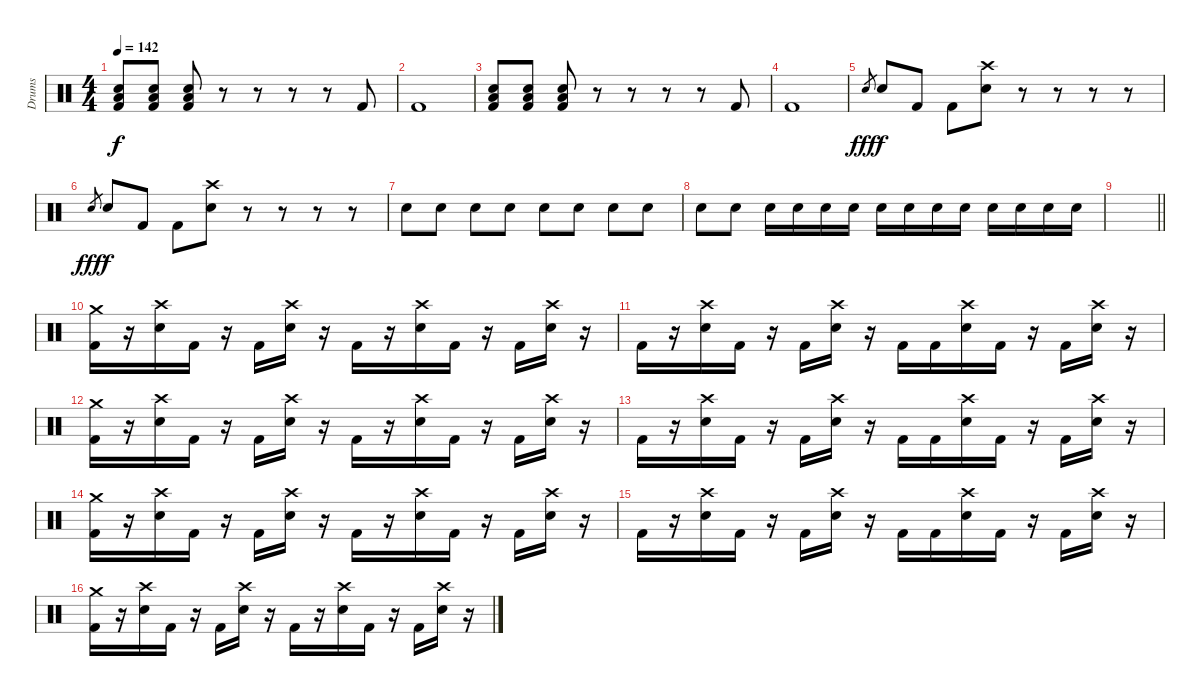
\track ("Drums" "Drums") {instrument percussion}
\staff
\articulation defaults
\ts (4 4)
\section ("" "")
\tempo 142
\clef neutral
\ks c
("Low Floor Tom (hit)" "Snare (hit) 2" "Kick (hit) 2").8{dy f} ("Low Floor Tom (hit)" "Snare (hit) 2" "Kick (hit) 2").8 ("Low Floor Tom (hit)" "Snare (hit) 2" "Kick (hit) 2").8 r.8 r.8 r.8 r.8 "Kick (hit) 2".8 |
"Kick (hit) 2".1 |
("Low Floor Tom (hit)" "Snare (hit) 2" "Kick (hit) 2").8 ("Low Floor Tom (hit)" "Snare (hit) 2" "Kick (hit) 2").8 ("Low Floor Tom (hit)" "Snare (hit) 2" "Kick (hit) 2").8 r.8 r.8 r.8 r.8 "Kick (hit) 2".8 |
"Kick (hit) 2".1 |
"Snare (hit) 2".8{gr dy fff} "Snare (hit) 2".8{dy f} "Kick (hit) 2".8 "Kick (hit) 2".8 ("Crash high (hit)" "Snare (hit) 2").8 r.8 r.8 r.8 r.8 |
"Snare (hit) 2".8{gr dy fff} "Snare (hit) 2".8{dy f} "Kick (hit) 2".8 "Kick (hit) 2".8 ("Crash high (hit)" "Snare (hit) 2").8 r.8 r.8 r.8 r.8 |
"Snare (hit) 2".8{volume 6} "Snare (hit) 2".8{volume 16} "Snare (hit) 2".8 "Snare (hit) 2".8 "Snare (hit) 2".8 "Snare (hit) 2".8 "Snare (hit) 2".8 "Snare (hit) 2".8 |
"Snare (hit) 2".8 "Snare (hit) 2".8 "Snare (hit) 2".16 "Snare (hit) 2".16 "Snare (hit) 2".16 "Snare (hit) 2".16 "Snare (hit) 2".16 "Snare (hit) 2".16 "Snare (hit) 2".16 "Snare (hit) 2".16 "Snare (hit) 2".16 "Snare (hit) 2".16 "Snare (hit) 2".16 "Snare (hit) 2".16 |
\barLineRight lightlight
|
\section ("" "")
("Crash medium (hit)" "Kick (hit) 2").16 r.16 ("Crash high (hit)" "Snare (hit) 2").16 "Kick (hit) 2".16 r.16 "Kick (hit) 2".16 ("Crash high (hit)" "Snare (hit) 2").16 r.16 "Kick (hit) 2".16 r.16 ("Crash high (hit)" "Snare (hit) 2").16 "Kick (hit) 2".16 r.16 "Kick (hit) 2".16 ("Crash high (hit)" "Snare (hit) 2").16 r.16 |
"Kick (hit) 2".16 r.16 ("Crash high (hit)" "Snare (hit) 2").16 "Kick (hit) 2".16 r.16 "Kick (hit) 2".16 ("Crash high (hit)" "Snare (hit) 2").16 r.16 "Kick (hit) 2".16 "Kick (hit) 2".16 ("Crash high (hit)" "Snare (hit) 2").16 "Kick (hit) 2".16 r.16 "Kick (hit) 2".16 ("Crash high (hit)" "Snare (hit) 2").16 r.16 |
("Crash medium (hit)" "Kick (hit) 2").16 r.16 ("Crash high (hit)" "Snare (hit) 2").16 "Kick (hit) 2".16 r.16 "Kick (hit) 2".16 ("Crash high (hit)" "Snare (hit) 2").16 r.16 "Kick (hit) 2".16 r.16 ("Crash high (hit)" "Snare (hit) 2").16 "Kick (hit) 2".16 r.16 "Kick (hit) 2".16 ("Crash high (hit)" "Snare (hit) 2").16 r.16 |
"Kick (hit) 2".16 r.16 ("Crash high (hit)" "Snare (hit) 2").16 "Kick (hit) 2".16 r.16 "Kick (hit) 2".16 ("Crash high (hit)" "Snare (hit) 2").16 r.16 "Kick (hit) 2".16 "Kick (hit) 2".16 ("Crash high (hit)" "Snare (hit) 2").16 "Kick (hit) 2".16 r.16 "Kick (hit) 2".16 ("Crash high (hit)" "Snare (hit) 2").16 r.16 |
("Crash medium (hit)" "Kick (hit) 2").16 r.16 ("Crash high (hit)" "Snare (hit) 2").16 "Kick (hit) 2".16 r.16 "Kick (hit) 2".16 ("Crash high (hit)" "Snare (hit) 2").16 r.16 "Kick (hit) 2".16 r.16 ("Crash high (hit)" "Snare (hit) 2").16 "Kick (hit) 2".16 r.16 "Kick (hit) 2".16 ("Crash high (hit)" "Snare (hit) 2").16 r.16 |
"Kick (hit) 2".16 r.16 ("Crash high (hit)" "Snare (hit) 2").16 "Kick (hit) 2".16 r.16 "Kick (hit) 2".16 ("Crash high (hit)" "Snare (hit) 2").16 r.16 "Kick (hit) 2".16 "Kick (hit) 2".16 ("Crash high (hit)" "Snare (hit) 2").16 "Kick (hit) 2".16 r.16 "Kick (hit) 2".16 ("Crash high (hit)" "Snare (hit) 2").16 r.16 |
("Crash medium (hit)" "Kick (hit) 2").16 r.16 ("Crash high (hit)" "Snare (hit) 2").16 "Kick (hit) 2".16 r.16 "Kick (hit) 2".16 ("Crash high (hit)" "Snare (hit) 2").16 r.16 "Kick (hit) 2".16 r.16 ("Crash high (hit)" "Snare (hit) 2").16 "Kick (hit) 2".16 r.16 "Kick (hit) 2".16 ("Crash high (hit)" "Snare (hit) 2").16 r.16
